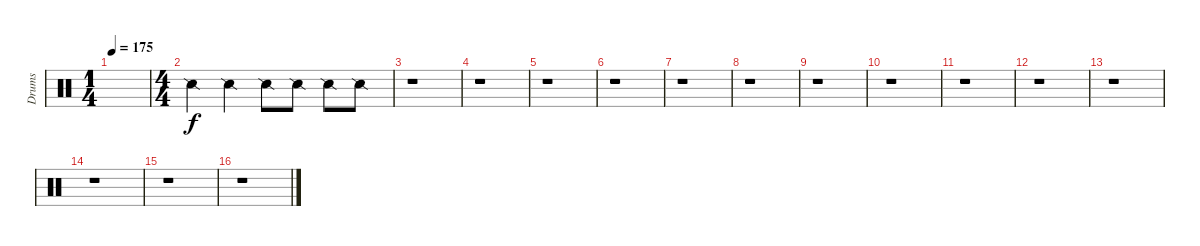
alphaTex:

\track ("Drums" "Drums") {instrument percussion}
\staff {score}
\articulation defaults
\ts (1 4)
\tempo 175
\clef neutral
\ks c
|
\ts (4 4)
"Snare (side stick) 2".4 "Snare (side stick) 2".4 "Snare (side stick) 2".8 "Snare (side stick) 2".8 "Snare (side stick) 2".8 "Snare (side stick) 2".8 |
r.1 |
r.1 |
r.1 |
r.1 |
r.1 |
r.1 |
r.1 |
r.1 |
r.1 |
r.1 |
r.1 |
r.1 |
r.1 |
r.1
